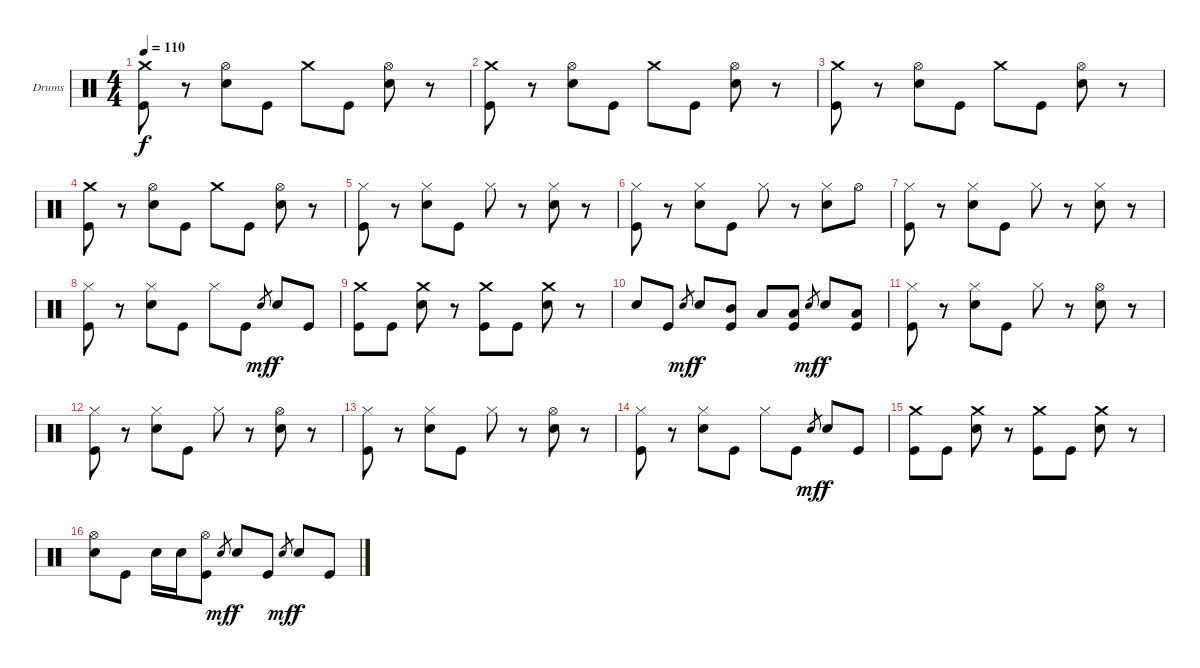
\bracketExtendMode groupsimilarinstruments
\firstSystemTrackNameOrientation horizontal
\otherSystemsTrackNameOrientation horizontal
\track ("Drumkit" "Drums") {instrument percussion}
\staff {score}
\articulation defaults
\ts (4 4)
\tempo 110
\clef neutral
\ks c
("Crash medium (hit)" "Kick (hit)").8{dy f} r.8 ("Hi-Hat (open)" "Snare (hit) 2").8 "Kick (hit)".8 "Crash medium (hit)".8 "Kick (hit)".8 ("Hi-Hat (open)" "Snare (hit) 2").8 r.8 |
("Crash medium (hit)" "Kick (hit)").8 r.8 ("Hi-Hat (open)" "Snare (hit) 2").8 "Kick (hit)".8 "Crash medium (hit)".8 "Kick (hit)".8 ("Hi-Hat (open)" "Snare (hit) 2").8 r.8 |
("Crash medium (hit)" "Kick (hit)").8 r.8 ("Hi-Hat (open)" "Snare (hit) 2").8 "Kick (hit)".8 "Crash medium (hit)".8 "Kick (hit)".8 ("Hi-Hat (open)" "Snare (hit) 2").8 r.8 |
("Crash medium (hit)" "Kick (hit)").8 r.8 ("Hi-Hat (open)" "Snare (hit) 2").8 "Kick (hit)".8 "Crash medium (hit)".8 "Kick (hit)".8 ("Hi-Hat (open)" "Snare (hit) 2").8 r.8 |
("Hi-Hat (closed)" "Kick (hit)").8 r.8 ("Hi-Hat (closed)" "Snare (hit) 2").8 "Kick (hit)".8 "Hi-Hat (closed)".8 r.8 ("Hi-Hat (closed)" "Snare (hit) 2").8 r.8 |
("Hi-Hat (closed)" "Kick (hit)").8 r.8 ("Hi-Hat (closed)" "Snare (hit) 2").8 "Kick (hit)".8 "Hi-Hat (closed)".8 r.8 ("Hi-Hat (closed)" "Snare (hit) 2").8 "Hi-Hat (open)".8 |
("Hi-Hat (closed)" "Kick (hit)").8 r.8 ("Hi-Hat (closed)" "Snare (hit) 2").8 "Kick (hit)".8 "Hi-Hat (closed)".8 r.8 ("Hi-Hat (closed)" "Snare (hit) 2").8 r.8 |
("Hi-Hat (closed)" "Kick (hit)").8 r.8 ("Hi-Hat (closed)" "Snare (hit) 2").8 "Kick (hit)".8 "Hi-Hat (closed)".8 "Kick (hit)".8 "Snare (hit) 2".8{gr dy mf} "Snare (hit) 2".8{dy f} "Kick (hit)".8 |
("Crash medium (hit)" "Kick (hit)").8 "Kick (hit)".8 ("Crash medium (hit)" "Snare (hit) 2").8 r.8 ("Crash medium (hit)" "Kick (hit)").8 "Kick (hit)".8 ("Crash medium (hit)" "Snare (hit) 2").8 r.8 |
"Snare (hit) 2".8 "Kick (hit)".8 "Snare (hit) 2".8{gr dy mf} "Snare (hit) 2".8{dy f} ("Mid Tom (hit)" "Kick (hit)").8 "Low Tom (hit)".8 ("Low Tom (hit)" "Kick (hit)").8 "Snare (hit) 2".8{gr dy mf} "Snare (hit) 2".8{dy f} ("Low Tom (hit)" "Kick (hit)").8 |
("Hi-Hat (closed)" "Kick (hit)").8 r.8 ("Hi-Hat (closed)" "Snare (hit) 2").8 "Kick (hit)".8 "Hi-Hat (closed)".8 r.8 ("Hi-Hat (open)" "Snare (hit) 2").8 r.8 |
("Hi-Hat (closed)" "Kick (hit)").8 r.8 ("Hi-Hat (closed)" "Snare (hit) 2").8 "Kick (hit)".8 "Hi-Hat (closed)".8 r.8 ("Hi-Hat (open)" "Snare (hit) 2").8 r.8 |
("Hi-Hat (closed)" "Kick (hit)").8 r.8 ("Hi-Hat (closed)" "Snare (hit) 2").8 "Kick (hit)".8 "Hi-Hat (closed)".8 r.8 ("Hi-Hat (open)" "Snare (hit) 2").8 r.8 |
("Hi-Hat (closed)" "Kick (hit)").8 r.8 ("Hi-Hat (closed)" "Snare (hit) 2").8 "Kick (hit)".8 "Hi-Hat (closed)".8 "Kick (hit)".8 "Snare (hit) 2".8{gr dy mf} "Snare (hit) 2".8{dy f} "Kick (hit)".8 |
("Crash medium (hit)" "Kick (hit)").8 "Kick (hit)".8 ("Crash medium (hit)" "Snare (hit) 2").8 r.8 ("Crash medium (hit)" "Kick (hit)").8 "Kick (hit)".8 ("Crash medium (hit)" "Snare (hit) 2").8 r.8 |
("Hi-Hat (open)" "Snare (hit) 2").8 "Kick (hit)".8 "Snare (hit) 2".16 "Snare (hit) 2".16 ("Hi-Hat (open)" "Kick (hit)").8 "Snare (hit) 2".8{gr dy mf} "Snare (hit) 2".8{dy f} "Kick (hit)".8 "Snare (hit) 2".8{gr dy mf} "Snare (hit) 2".8{dy f} "Kick (hit)".8
